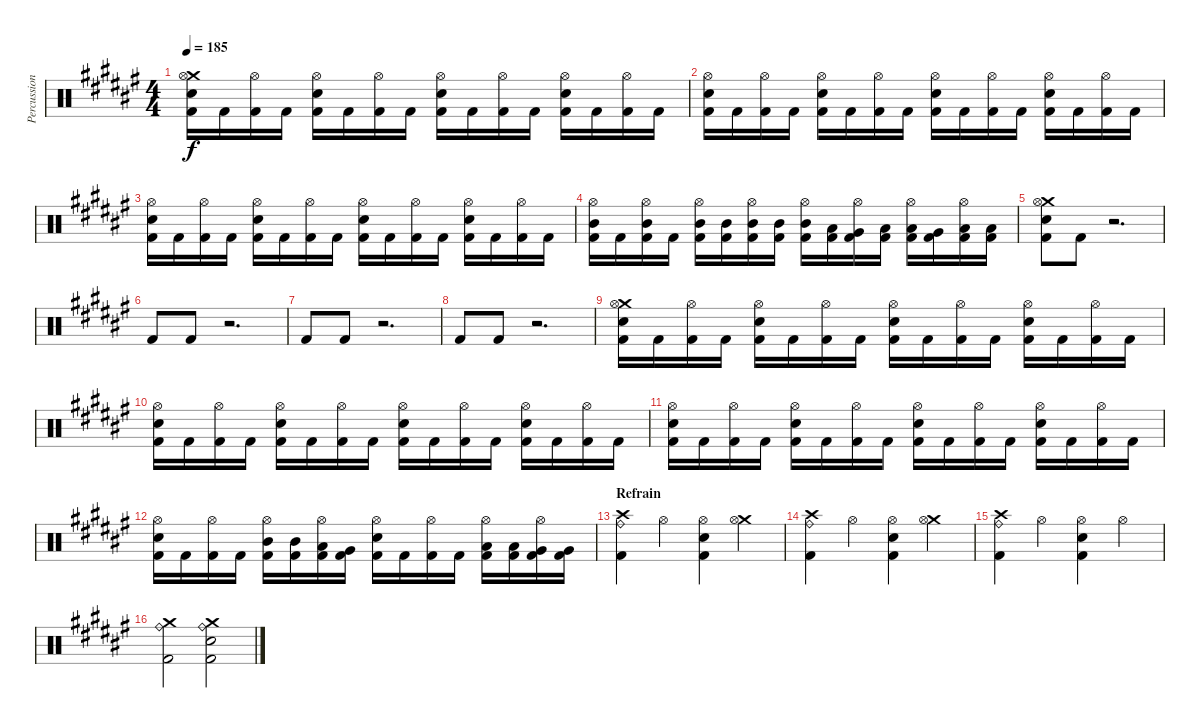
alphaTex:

\track ("Percussion" "Percussion") {instrument percussion}
\staff {score}
\articulation defaults
\ts (4 4)
\tempo 185
\clef neutral
\ks d#minor
("Crash medium (hit)" "Hi-Hat (open)" "Electric Snare (hit)" "Kick (hit) 2").16{dy f} "Kick (hit) 2".16 ("Hi-Hat (open)" "Kick (hit) 2").16 "Kick (hit) 2".16 ("Hi-Hat (open)" "Electric Snare (hit)" "Kick (hit) 2").16 "Kick (hit) 2".16 ("Hi-Hat (open)" "Kick (hit) 2").16 "Kick (hit) 2".16 ("Hi-Hat (open)" "Electric Snare (hit)" "Kick (hit) 2").16 "Kick (hit) 2".16 ("Hi-Hat (open)" "Kick (hit) 2").16 "Kick (hit) 2".16 ("Hi-Hat (open)" "Electric Snare (hit)" "Kick (hit) 2").16 "Kick (hit) 2".16 ("Hi-Hat (open)" "Kick (hit) 2").16 "Kick (hit) 2".16 |
("Hi-Hat (open)" "Electric Snare (hit)" "Kick (hit) 2").16 "Kick (hit) 2".16 ("Hi-Hat (open)" "Kick (hit) 2").16 "Kick (hit) 2".16 ("Hi-Hat (open)" "Electric Snare (hit)" "Kick (hit) 2").16 "Kick (hit) 2".16 ("Hi-Hat (open)" "Kick (hit) 2").16 "Kick (hit) 2".16 ("Hi-Hat (open)" "Electric Snare (hit)" "Kick (hit) 2").16 "Kick (hit) 2".16 ("Hi-Hat (open)" "Kick (hit) 2").16 "Kick (hit) 2".16 ("Hi-Hat (open)" "Electric Snare (hit)" "Kick (hit) 2").16 "Kick (hit) 2".16 ("Hi-Hat (open)" "Kick (hit) 2").16 "Kick (hit) 2".16 |
("Hi-Hat (open)" "Electric Snare (hit)" "Kick (hit) 2").16 "Kick (hit) 2".16 ("Hi-Hat (open)" "Kick (hit) 2").16 "Kick (hit) 2".16 ("Hi-Hat (open)" "Electric Snare (hit)" "Kick (hit) 2").16 "Kick (hit) 2".16 ("Hi-Hat (open)" "Kick (hit) 2").16 "Kick (hit) 2".16 ("Hi-Hat (open)" "Electric Snare (hit)" "Kick (hit) 2").16 "Kick (hit) 2".16 ("Hi-Hat (open)" "Kick (hit) 2").16 "Kick (hit) 2".16 ("Hi-Hat (open)" "Electric Snare (hit)" "Kick (hit) 2").16 "Kick (hit) 2".16 ("Hi-Hat (open)" "Kick (hit) 2").16 "Kick (hit) 2".16 |
("Hi-Hat (open)" "Mid Tom (hit)" "Kick (hit) 2").16 "Kick (hit) 2".16 ("Hi-Hat (open)" "Mid Tom (hit)" "Kick (hit) 2").16 "Kick (hit) 2".16 ("Hi-Hat (open)" "Mid Tom (hit)" "Kick (hit) 2").16 ("Mid Tom (hit)" "Kick (hit) 2").16 ("Hi-Hat (open)" "Mid Tom (hit)" "Kick (hit) 2").16 ("Mid Tom (hit)" "Kick (hit) 2").16 ("Hi-Hat (open)" "Mid Tom (hit)" "Kick (hit) 2").16 ("Low Tom (hit)" "Kick (hit) 2").16 ("Hi-Hat (open)" "Very Low Tom (hit)" "Kick (hit) 2").16 ("Low Floor Tom (hit)" "Kick (hit) 2").16 ("Hi-Hat (open)" "Low Tom (hit)" "Kick (hit) 2").16 ("Very Low Tom (hit)" "Kick (hit) 2").16 ("Hi-Hat (open)" "Low Floor Tom (hit)" "Kick (hit) 2").16 ("Low Floor Tom (hit)" "Kick (hit) 2").16 |
("Crash medium (hit)" "Hi-Hat (open)" "Electric Snare (hit)" "Kick (hit) 2").8 "Kick (hit) 2".8 r.2{d} |
"Kick (hit) 2".8 "Kick (hit) 2".8 r.2{d} |
"Kick (hit) 2".8 "Kick (hit) 2".8 r.2{d} |
"Kick (hit) 2".8 "Kick (hit) 2".8 r.2{d} |
("Crash medium (hit)" "Hi-Hat (open)" "Electric Snare (hit)" "Kick (hit) 2").16 "Kick (hit) 2".16 ("Hi-Hat (open)" "Kick (hit) 2").16 "Kick (hit) 2".16 ("Hi-Hat (open)" "Electric Snare (hit)" "Kick (hit) 2").16 "Kick (hit) 2".16 ("Hi-Hat (open)" "Kick (hit) 2").16 "Kick (hit) 2".16 ("Hi-Hat (open)" "Electric Snare (hit)" "Kick (hit) 2").16 "Kick (hit) 2".16 ("Hi-Hat (open)" "Kick (hit) 2").16 "Kick (hit) 2".16 ("Hi-Hat (open)" "Electric Snare (hit)" "Kick (hit) 2").16 "Kick (hit) 2".16 ("Hi-Hat (open)" "Kick (hit) 2").16 "Kick (hit) 2".16 |
("Hi-Hat (open)" "Electric Snare (hit)" "Kick (hit) 2").16 "Kick (hit) 2".16 ("Hi-Hat (open)" "Kick (hit) 2").16 "Kick (hit) 2".16 ("Hi-Hat (open)" "Electric Snare (hit)" "Kick (hit) 2").16 "Kick (hit) 2".16 ("Hi-Hat (open)" "Kick (hit) 2").16 "Kick (hit) 2".16 ("Hi-Hat (open)" "Electric Snare (hit)" "Kick (hit) 2").16 "Kick (hit) 2".16 ("Hi-Hat (open)" "Kick (hit) 2").16 "Kick (hit) 2".16 ("Hi-Hat (open)" "Electric Snare (hit)" "Kick (hit) 2").16 "Kick (hit) 2".16 ("Hi-Hat (open)" "Kick (hit) 2").16 "Kick (hit) 2".16 |
("Hi-Hat (open)" "Electric Snare (hit)" "Kick (hit) 2").16 "Kick (hit) 2".16 ("Hi-Hat (open)" "Kick (hit) 2").16 "Kick (hit) 2".16 ("Hi-Hat (open)" "Electric Snare (hit)" "Kick (hit) 2").16 "Kick (hit) 2".16 ("Hi-Hat (open)" "Kick (hit) 2").16 "Kick (hit) 2".16 ("Hi-Hat (open)" "Electric Snare (hit)" "Kick (hit) 2").16 "Kick (hit) 2".16 ("Hi-Hat (open)" "Kick (hit) 2").16 "Kick (hit) 2".16 ("Hi-Hat (open)" "Electric Snare (hit)" "Kick (hit) 2").16 "Kick (hit) 2".16 ("Hi-Hat (open)" "Kick (hit) 2").16 "Kick (hit) 2".16 |
("Hi-Hat (open)" "Electric Snare (hit)" "Kick (hit) 2").16 "Kick (hit) 2".16 ("Hi-Hat (open)" "Kick (hit) 2").16 "Kick (hit) 2".16 ("Hi-Hat (open)" "Mid Tom (hit)" "Kick (hit) 2").16 ("Mid Tom (hit)" "Kick (hit) 2").16 ("Hi-Hat (open)" "Low Tom (hit)" "Kick (hit) 2").16 ("Very Low Tom (hit)" "Kick (hit) 2").16 ("Hi-Hat (open)" "Electric Snare (hit)" "Kick (hit) 2").16 "Kick (hit) 2".16 ("Hi-Hat (open)" "Kick (hit) 2").16 "Kick (hit) 2".16 ("Hi-Hat (open)" "Low Tom (hit)" "Kick (hit) 2").16 ("Low Tom (hit)" "Kick (hit) 2").16 ("Hi-Hat (open)" "Very Low Tom (hit)" "Kick (hit) 2").16 ("Very Low Tom (hit)" "Kick (hit) 2").16 |
\section ("" "Refrain")
("Crash high (hit)" "Ride (bell)" "Kick (hit) 2").4 "Hi-Hat (open)".4 ("Hi-Hat (open)" "Electric Snare (hit)" "Kick (hit) 2").4 ("Crash medium (hit)" "Hi-Hat (open)").4 |
("Crash high (hit)" "Ride (bell)" "Kick (hit) 2").4 "Hi-Hat (open)".4 ("Hi-Hat (open)" "Electric Snare (hit)" "Kick (hit) 2").4 ("Crash medium (hit)" "Hi-Hat (open)").4 |
("Crash high (hit)" "Ride (bell)" "Kick (hit) 2").4 "Hi-Hat (open)".4 ("Hi-Hat (open)" "Electric Snare (hit)" "Kick (hit) 2").4 "Hi-Hat (open)".4 |
("Crash medium (hit)" "Ride (bell)" "Kick (hit) 2").2 ("Crash medium (hit)" "Ride (bell)" "Electric Snare (hit)" "Kick (hit) 2").2
